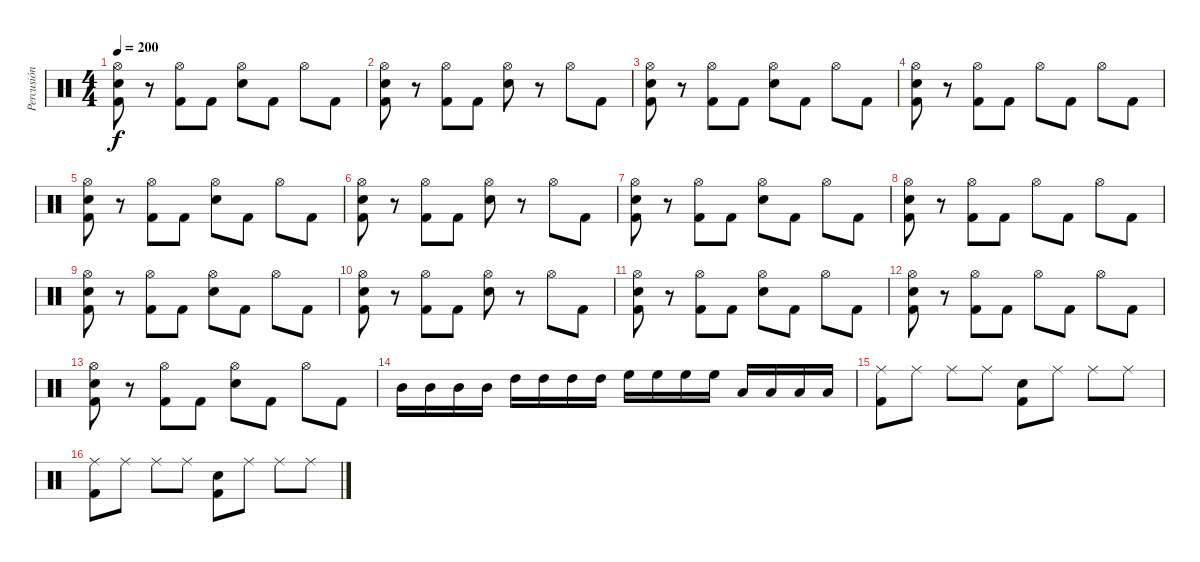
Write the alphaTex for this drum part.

\track ("Percusión" "Percusión") {instrument percussion}
\staff {score}
\articulation defaults
\ts (4 4)
\tempo 200
\clef neutral
\ks c
("Hi-Hat (open)" "Snare (hit) 2" "Kick (hit) 2").8{dy f} r.8 ("Hi-Hat (open)" "Kick (hit) 2").8 "Kick (hit) 2".8 ("Hi-Hat (open)" "Snare (hit) 2").8 "Kick (hit) 2".8 "Hi-Hat (open)".8 "Kick (hit) 2".8 |
("Hi-Hat (open)" "Snare (hit) 2" "Kick (hit) 2").8 r.8 ("Hi-Hat (open)" "Kick (hit) 2").8 "Kick (hit) 2".8 ("Hi-Hat (open)" "Snare (hit) 2").8 r.8 "Hi-Hat (open)".8 "Kick (hit) 2".8 |
("Hi-Hat (open)" "Snare (hit) 2" "Kick (hit) 2").8 r.8 ("Hi-Hat (open)" "Kick (hit) 2").8 "Kick (hit) 2".8 ("Hi-Hat (open)" "Snare (hit) 2").8 "Kick (hit) 2".8 "Hi-Hat (open)".8 "Kick (hit) 2".8 |
("Hi-Hat (open)" "Snare (hit) 2" "Kick (hit) 2").8 r.8 ("Hi-Hat (open)" "Kick (hit) 2").8 "Kick (hit) 2".8 "Hi-Hat (open)".8 "Kick (hit) 2".8 "Hi-Hat (open)".8 "Kick (hit) 2".8 |
("Hi-Hat (open)" "Snare (hit) 2" "Kick (hit) 2").8 r.8 ("Hi-Hat (open)" "Kick (hit) 2").8 "Kick (hit) 2".8 ("Hi-Hat (open)" "Snare (hit) 2").8 "Kick (hit) 2".8 "Hi-Hat (open)".8 "Kick (hit) 2".8 |
("Hi-Hat (open)" "Snare (hit) 2" "Kick (hit) 2").8 r.8 ("Hi-Hat (open)" "Kick (hit) 2").8 "Kick (hit) 2".8 ("Hi-Hat (open)" "Snare (hit) 2").8 r.8 "Hi-Hat (open)".8 "Kick (hit) 2".8 |
("Hi-Hat (open)" "Snare (hit) 2" "Kick (hit) 2").8 r.8 ("Hi-Hat (open)" "Kick (hit) 2").8 "Kick (hit) 2".8 ("Hi-Hat (open)" "Snare (hit) 2").8 "Kick (hit) 2".8 "Hi-Hat (open)".8 "Kick (hit) 2".8 |
("Hi-Hat (open)" "Snare (hit) 2" "Kick (hit) 2").8 r.8 ("Hi-Hat (open)" "Kick (hit) 2").8 "Kick (hit) 2".8 "Hi-Hat (open)".8 "Kick (hit) 2".8 "Hi-Hat (open)".8 "Kick (hit) 2".8 |
("Hi-Hat (open)" "Snare (hit) 2" "Kick (hit) 2").8 r.8 ("Hi-Hat (open)" "Kick (hit) 2").8 "Kick (hit) 2".8 ("Hi-Hat (open)" "Snare (hit) 2").8 "Kick (hit) 2".8 "Hi-Hat (open)".8 "Kick (hit) 2".8 |
("Hi-Hat (open)" "Snare (hit) 2" "Kick (hit) 2").8 r.8 ("Hi-Hat (open)" "Kick (hit) 2").8 "Kick (hit) 2".8 ("Hi-Hat (open)" "Snare (hit) 2").8 r.8 "Hi-Hat (open)".8 "Kick (hit) 2".8 |
("Hi-Hat (open)" "Snare (hit) 2" "Kick (hit) 2").8 r.8 ("Hi-Hat (open)" "Kick (hit) 2").8 "Kick (hit) 2".8 ("Hi-Hat (open)" "Snare (hit) 2").8 "Kick (hit) 2".8 "Hi-Hat (open)".8 "Kick (hit) 2".8 |
("Hi-Hat (open)" "Snare (hit) 2" "Kick (hit) 2").8 r.8 ("Hi-Hat (open)" "Kick (hit) 2").8 "Kick (hit) 2".8 "Hi-Hat (open)".8 "Kick (hit) 2".8 "Hi-Hat (open)".8 "Kick (hit) 2".8 |
("Hi-Hat (open)" "Snare (hit) 2" "Kick (hit) 2").8 r.8 ("Hi-Hat (open)" "Kick (hit) 2").8 "Kick (hit) 2".8 ("Hi-Hat (open)" "Snare (hit) 2").8 "Kick (hit) 2".8 "Hi-Hat (open)".8 "Kick (hit) 2".8 |
"Mid Tom (hit)".16 "Mid Tom (hit)".16 "Mid Tom (hit)".16 "Mid Tom (hit)".16 "High Tom (hit)".16 "High Tom (hit)".16 "High Tom (hit)".16 "High Tom (hit)".16 "High Floor Tom (hit)".16 "High Floor Tom (hit)".16 "High Floor Tom (hit)".16 "High Floor Tom (hit)".16 "Low Tom (hit)".16 "Low Tom (hit)".16 "Low Tom (hit)".16 "Low Tom (hit)".16 |
("Ride (middle)" "Kick (hit) 2").8 "Ride (middle)".8 "Ride (middle)".8 "Ride (middle)".8 ("Snare (hit) 2" "Kick (hit) 2").8 "Ride (middle)".8 "Ride (middle)".8 "Ride (middle)".8 |
("Ride (middle)" "Kick (hit) 2").8 "Ride (middle)".8 "Ride (middle)".8 "Ride (middle)".8 ("Snare (hit) 2" "Kick (hit) 2").8 "Ride (middle)".8 "Ride (middle)".8 "Ride (middle)".8
